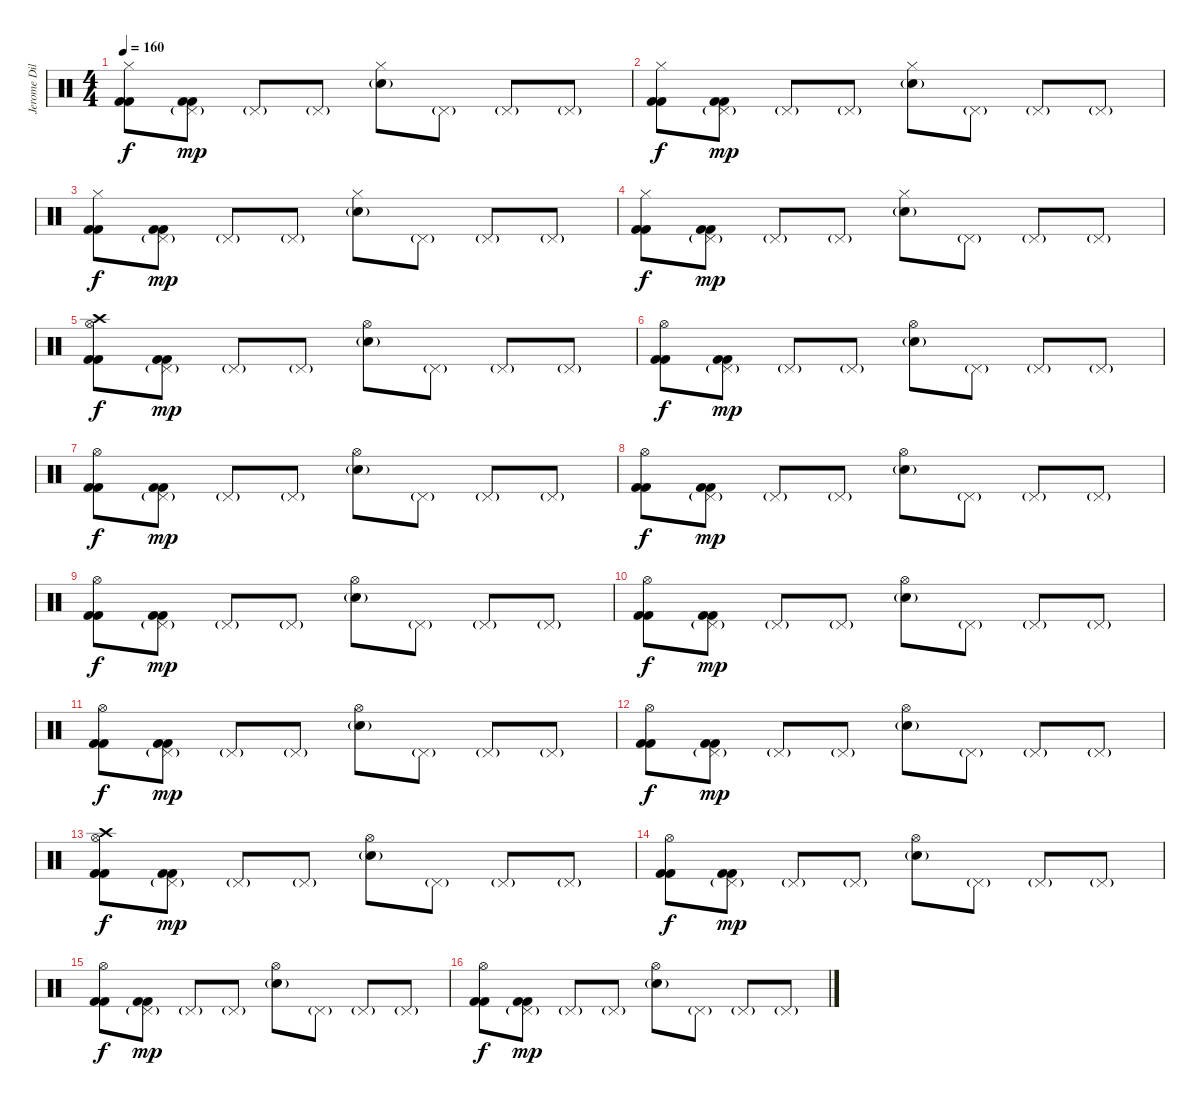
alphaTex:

\track ("Jerome Dillon" "Jerome Dil") {instrument percussion}
\staff {score}
\articulation defaults
\ts (4 4)
\tempo 160
\clef neutral
\ks c
("Hi-Hat (closed)" "Kick (hit) 2" "Kick (hit) 2").8{dy f} ("Pedal Hi-Hat (hit)"{g} "Kick (hit) 2" "Kick (hit) 2").8{dy mp} "Pedal Hi-Hat (hit)"{g}.8 "Pedal Hi-Hat (hit)"{g}.8 ("Hi-Hat (closed)" "Electric Snare (hit)"{g}).8 "Pedal Hi-Hat (hit)"{g}.8 "Pedal Hi-Hat (hit)"{g}.8 "Pedal Hi-Hat (hit)"{g}.8 |
("Hi-Hat (closed)" "Kick (hit) 2" "Kick (hit) 2").8{dy f} ("Pedal Hi-Hat (hit)"{g} "Kick (hit) 2" "Kick (hit) 2").8{dy mp} "Pedal Hi-Hat (hit)"{g}.8 "Pedal Hi-Hat (hit)"{g}.8 ("Hi-Hat (closed)" "Electric Snare (hit)"{g}).8 "Pedal Hi-Hat (hit)"{g}.8 "Pedal Hi-Hat (hit)"{g}.8 "Pedal Hi-Hat (hit)"{g}.8 |
("Hi-Hat (closed)" "Kick (hit) 2" "Kick (hit) 2").8{dy f} ("Pedal Hi-Hat (hit)"{g} "Kick (hit) 2" "Kick (hit) 2").8{dy mp} "Pedal Hi-Hat (hit)"{g}.8 "Pedal Hi-Hat (hit)"{g}.8 ("Hi-Hat (closed)" "Electric Snare (hit)"{g}).8 "Pedal Hi-Hat (hit)"{g}.8 "Pedal Hi-Hat (hit)"{g}.8 "Pedal Hi-Hat (hit)"{g}.8 |
("Hi-Hat (closed)" "Kick (hit) 2" "Kick (hit) 2").8{dy f} ("Pedal Hi-Hat (hit)"{g} "Kick (hit) 2" "Kick (hit) 2").8{dy mp} "Pedal Hi-Hat (hit)"{g}.8 "Pedal Hi-Hat (hit)"{g}.8 ("Hi-Hat (closed)" "Electric Snare (hit)"{g}).8 "Pedal Hi-Hat (hit)"{g}.8 "Pedal Hi-Hat (hit)"{g}.8 "Pedal Hi-Hat (hit)"{g}.8 |
("Hi-Hat (open)" "Crash high (hit)" "Kick (hit) 2" "Kick (hit) 2").8{dy f} ("Pedal Hi-Hat (hit)"{g} "Kick (hit) 2" "Kick (hit) 2").8{dy mp} "Pedal Hi-Hat (hit)"{g}.8 "Pedal Hi-Hat (hit)"{g}.8 ("Hi-Hat (open)" "Electric Snare (hit)"{g}).8 "Pedal Hi-Hat (hit)"{g}.8 "Pedal Hi-Hat (hit)"{g}.8 "Pedal Hi-Hat (hit)"{g}.8 |
("Hi-Hat (open)" "Kick (hit) 2" "Kick (hit) 2").8{dy f} ("Pedal Hi-Hat (hit)"{g} "Kick (hit) 2" "Kick (hit) 2").8{dy mp} "Pedal Hi-Hat (hit)"{g}.8 "Pedal Hi-Hat (hit)"{g}.8 ("Hi-Hat (open)" "Electric Snare (hit)"{g}).8 "Pedal Hi-Hat (hit)"{g}.8 "Pedal Hi-Hat (hit)"{g}.8 "Pedal Hi-Hat (hit)"{g}.8 |
("Hi-Hat (open)" "Kick (hit) 2" "Kick (hit) 2").8{dy f} ("Pedal Hi-Hat (hit)"{g} "Kick (hit) 2" "Kick (hit) 2").8{dy mp} "Pedal Hi-Hat (hit)"{g}.8 "Pedal Hi-Hat (hit)"{g}.8 ("Hi-Hat (open)" "Electric Snare (hit)"{g}).8 "Pedal Hi-Hat (hit)"{g}.8 "Pedal Hi-Hat (hit)"{g}.8 "Pedal Hi-Hat (hit)"{g}.8 |
("Hi-Hat (open)" "Kick (hit) 2" "Kick (hit) 2").8{dy f} ("Pedal Hi-Hat (hit)"{g} "Kick (hit) 2" "Kick (hit) 2").8{dy mp} "Pedal Hi-Hat (hit)"{g}.8 "Pedal Hi-Hat (hit)"{g}.8 ("Hi-Hat (open)" "Electric Snare (hit)"{g}).8 "Pedal Hi-Hat (hit)"{g}.8 "Pedal Hi-Hat (hit)"{g}.8 "Pedal Hi-Hat (hit)"{g}.8 |
("Hi-Hat (open)" "Kick (hit) 2" "Kick (hit) 2").8{dy f} ("Pedal Hi-Hat (hit)"{g} "Kick (hit) 2" "Kick (hit) 2").8{dy mp} "Pedal Hi-Hat (hit)"{g}.8 "Pedal Hi-Hat (hit)"{g}.8 ("Hi-Hat (open)" "Electric Snare (hit)"{g}).8 "Pedal Hi-Hat (hit)"{g}.8 "Pedal Hi-Hat (hit)"{g}.8 "Pedal Hi-Hat (hit)"{g}.8 |
("Hi-Hat (open)" "Kick (hit) 2" "Kick (hit) 2").8{dy f} ("Pedal Hi-Hat (hit)"{g} "Kick (hit) 2" "Kick (hit) 2").8{dy mp} "Pedal Hi-Hat (hit)"{g}.8 "Pedal Hi-Hat (hit)"{g}.8 ("Hi-Hat (open)" "Electric Snare (hit)"{g}).8 "Pedal Hi-Hat (hit)"{g}.8 "Pedal Hi-Hat (hit)"{g}.8 "Pedal Hi-Hat (hit)"{g}.8 |
("Hi-Hat (open)" "Kick (hit) 2" "Kick (hit) 2").8{dy f} ("Pedal Hi-Hat (hit)"{g} "Kick (hit) 2" "Kick (hit) 2").8{dy mp} "Pedal Hi-Hat (hit)"{g}.8 "Pedal Hi-Hat (hit)"{g}.8 ("Hi-Hat (open)" "Electric Snare (hit)"{g}).8 "Pedal Hi-Hat (hit)"{g}.8 "Pedal Hi-Hat (hit)"{g}.8 "Pedal Hi-Hat (hit)"{g}.8 |
("Hi-Hat (open)" "Kick (hit) 2" "Kick (hit) 2").8{dy f} ("Pedal Hi-Hat (hit)"{g} "Kick (hit) 2" "Kick (hit) 2").8{dy mp} "Pedal Hi-Hat (hit)"{g}.8 "Pedal Hi-Hat (hit)"{g}.8 ("Hi-Hat (open)" "Electric Snare (hit)"{g}).8 "Pedal Hi-Hat (hit)"{g}.8 "Pedal Hi-Hat (hit)"{g}.8 "Pedal Hi-Hat (hit)"{g}.8 |
("Hi-Hat (open)" "Crash high (hit)" "Kick (hit) 2" "Kick (hit) 2").8{dy f} ("Pedal Hi-Hat (hit)"{g} "Kick (hit) 2" "Kick (hit) 2").8{dy mp} "Pedal Hi-Hat (hit)"{g}.8 "Pedal Hi-Hat (hit)"{g}.8 ("Hi-Hat (open)" "Electric Snare (hit)"{g}).8 "Pedal Hi-Hat (hit)"{g}.8 "Pedal Hi-Hat (hit)"{g}.8 "Pedal Hi-Hat (hit)"{g}.8 |
("Hi-Hat (open)" "Kick (hit) 2" "Kick (hit) 2").8{dy f} ("Pedal Hi-Hat (hit)"{g} "Kick (hit) 2" "Kick (hit) 2").8{dy mp} "Pedal Hi-Hat (hit)"{g}.8 "Pedal Hi-Hat (hit)"{g}.8 ("Hi-Hat (open)" "Electric Snare (hit)"{g}).8 "Pedal Hi-Hat (hit)"{g}.8 "Pedal Hi-Hat (hit)"{g}.8 "Pedal Hi-Hat (hit)"{g}.8 |
("Hi-Hat (open)" "Kick (hit) 2" "Kick (hit) 2").8{dy f} ("Pedal Hi-Hat (hit)"{g} "Kick (hit) 2" "Kick (hit) 2").8{dy mp} "Pedal Hi-Hat (hit)"{g}.8 "Pedal Hi-Hat (hit)"{g}.8 ("Hi-Hat (open)" "Electric Snare (hit)"{g}).8 "Pedal Hi-Hat (hit)"{g}.8 "Pedal Hi-Hat (hit)"{g}.8 "Pedal Hi-Hat (hit)"{g}.8 |
("Hi-Hat (open)" "Kick (hit) 2" "Kick (hit) 2").8{dy f} ("Pedal Hi-Hat (hit)"{g} "Kick (hit) 2" "Kick (hit) 2").8{dy mp} "Pedal Hi-Hat (hit)"{g}.8 "Pedal Hi-Hat (hit)"{g}.8 ("Hi-Hat (open)" "Electric Snare (hit)"{g}).8 "Pedal Hi-Hat (hit)"{g}.8 "Pedal Hi-Hat (hit)"{g}.8 "Pedal Hi-Hat (hit)"{g}.8
